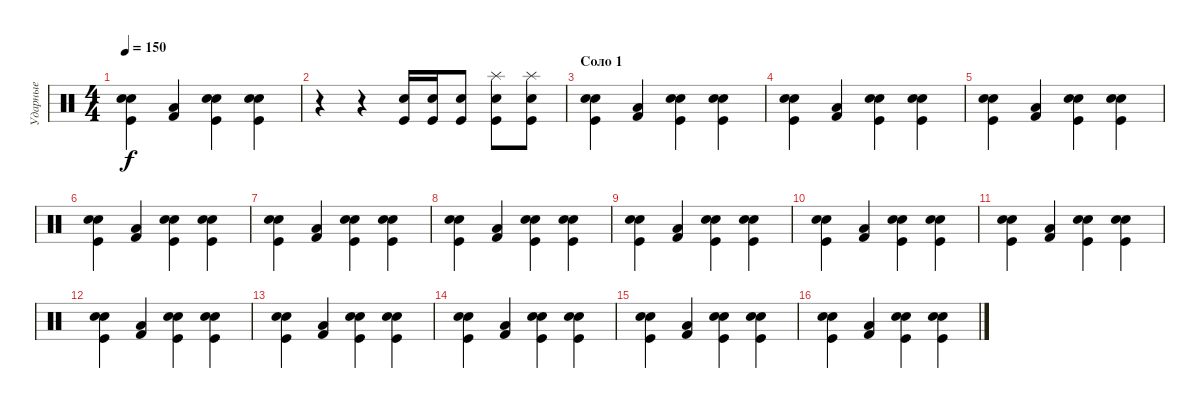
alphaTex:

\track ("Ударные" "Ударные") {instrument percussion}
\staff {score}
\articulation defaults
\ts (4 4)
\tempo 150
\clef neutral
\ks c
("Electric Snare (hit)" "Kick (hit)" "Snare (hit) 2").4{dy f} ("Kick (hit) 2" "Low Tom (hit)").4 ("Electric Snare (hit)" "Kick (hit)" "Snare (hit) 2").4 ("Electric Snare (hit)" "Kick (hit)" "Snare (hit) 2").4 |
r.4 r.4 ("Kick (hit)" "Electric Snare (hit)").16 ("Kick (hit)" "Electric Snare (hit)").16 ("Kick (hit)" "Electric Snare (hit)").8 ("Kick (hit)" "Electric Snare (hit)" "Splash (hit)").8 ("Kick (hit)" "Electric Snare (hit)" "Splash (hit)").8 |
\section ("" "Соло 1")
("Electric Snare (hit)" "Kick (hit)" "Snare (hit) 2").4 ("Kick (hit) 2" "Low Tom (hit)").4 ("Electric Snare (hit)" "Kick (hit)" "Snare (hit) 2").4 ("Electric Snare (hit)" "Kick (hit)" "Snare (hit) 2").4 |
("Electric Snare (hit)" "Kick (hit)" "Snare (hit) 2").4 ("Kick (hit) 2" "Low Tom (hit)").4 ("Electric Snare (hit)" "Kick (hit)" "Snare (hit) 2").4 ("Electric Snare (hit)" "Kick (hit)" "Snare (hit) 2").4 |
("Electric Snare (hit)" "Kick (hit)" "Snare (hit) 2").4 ("Kick (hit) 2" "Low Tom (hit)").4 ("Electric Snare (hit)" "Kick (hit)" "Snare (hit) 2").4 ("Electric Snare (hit)" "Kick (hit)" "Snare (hit) 2").4 |
("Electric Snare (hit)" "Kick (hit)" "Snare (hit) 2").4 ("Kick (hit) 2" "Low Tom (hit)").4 ("Electric Snare (hit)" "Kick (hit)" "Snare (hit) 2").4 ("Electric Snare (hit)" "Kick (hit)" "Snare (hit) 2").4 |
("Electric Snare (hit)" "Kick (hit)" "Snare (hit) 2").4 ("Kick (hit) 2" "Low Tom (hit)").4 ("Electric Snare (hit)" "Kick (hit)" "Snare (hit) 2").4 ("Electric Snare (hit)" "Kick (hit)" "Snare (hit) 2").4 |
("Electric Snare (hit)" "Kick (hit)" "Snare (hit) 2").4 ("Kick (hit) 2" "Low Tom (hit)").4 ("Electric Snare (hit)" "Kick (hit)" "Snare (hit) 2").4 ("Electric Snare (hit)" "Kick (hit)" "Snare (hit) 2").4 |
("Electric Snare (hit)" "Kick (hit)" "Snare (hit) 2").4 ("Kick (hit) 2" "Low Tom (hit)").4 ("Electric Snare (hit)" "Kick (hit)" "Snare (hit) 2").4 ("Electric Snare (hit)" "Kick (hit)" "Snare (hit) 2").4 |
("Electric Snare (hit)" "Kick (hit)" "Snare (hit) 2").4 ("Kick (hit) 2" "Low Tom (hit)").4 ("Electric Snare (hit)" "Kick (hit)" "Snare (hit) 2").4 ("Electric Snare (hit)" "Kick (hit)" "Snare (hit) 2").4 |
("Electric Snare (hit)" "Kick (hit)" "Snare (hit) 2").4 ("Kick (hit) 2" "Low Tom (hit)").4 ("Electric Snare (hit)" "Kick (hit)" "Snare (hit) 2").4 ("Electric Snare (hit)" "Kick (hit)" "Snare (hit) 2").4 |
("Electric Snare (hit)" "Kick (hit)" "Snare (hit) 2").4 ("Kick (hit) 2" "Low Tom (hit)").4 ("Electric Snare (hit)" "Kick (hit)" "Snare (hit) 2").4 ("Electric Snare (hit)" "Kick (hit)" "Snare (hit) 2").4 |
("Electric Snare (hit)" "Kick (hit)" "Snare (hit) 2").4 ("Kick (hit) 2" "Low Tom (hit)").4 ("Electric Snare (hit)" "Kick (hit)" "Snare (hit) 2").4 ("Electric Snare (hit)" "Kick (hit)" "Snare (hit) 2").4 |
("Electric Snare (hit)" "Kick (hit)" "Snare (hit) 2").4 ("Kick (hit) 2" "Low Tom (hit)").4 ("Electric Snare (hit)" "Kick (hit)" "Snare (hit) 2").4 ("Electric Snare (hit)" "Kick (hit)" "Snare (hit) 2").4 |
("Electric Snare (hit)" "Kick (hit)" "Snare (hit) 2").4 ("Kick (hit) 2" "Low Tom (hit)").4 ("Electric Snare (hit)" "Kick (hit)" "Snare (hit) 2").4 ("Electric Snare (hit)" "Kick (hit)" "Snare (hit) 2").4 |
("Electric Snare (hit)" "Kick (hit)" "Snare (hit) 2").4 ("Kick (hit) 2" "Low Tom (hit)").4 ("Electric Snare (hit)" "Kick (hit)" "Snare (hit) 2").4 ("Electric Snare (hit)" "Kick (hit)" "Snare (hit) 2").4
